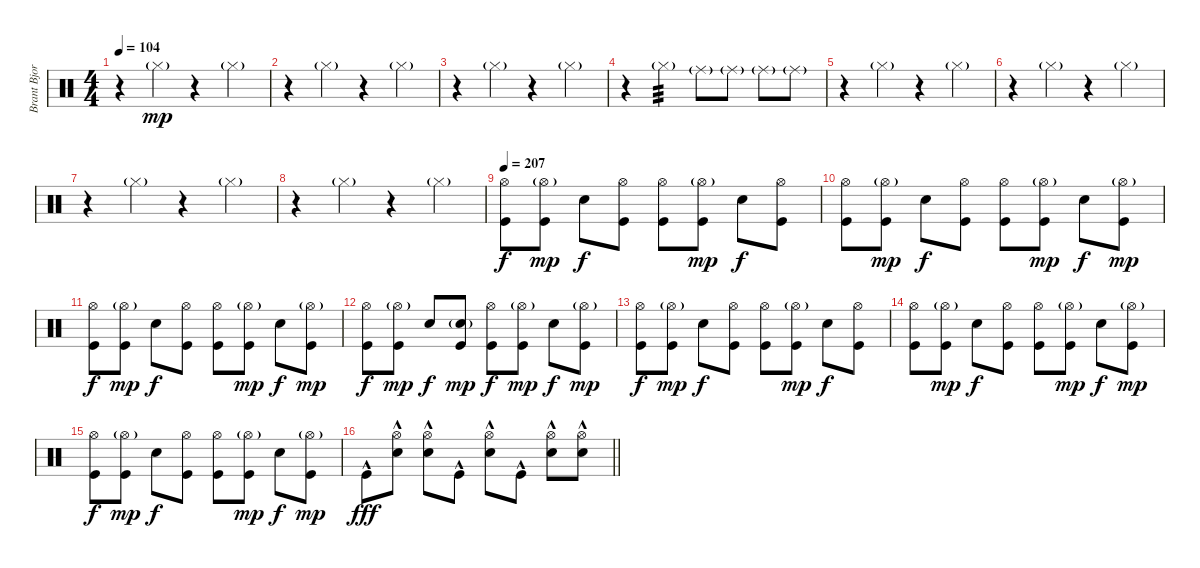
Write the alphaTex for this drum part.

\track ("Brant Bjork - Drums" "Brant Bjor") {instrument percussion}
\staff {score}
\articulation defaults
\ts (4 4)
\tempo 104
\clef neutral
\ks c
r.4{dy mp} "Hi-Hat (closed)"{g}.4 r.4 "Hi-Hat (closed)"{g}.4 |
r.4 "Hi-Hat (closed)"{g}.4 r.4 "Hi-Hat (closed)"{g}.4 |
r.4 "Hi-Hat (closed)"{g}.4 r.4 "Hi-Hat (closed)"{g}.4 |
r.4 "Hi-Hat (closed)"{g}.4{tp 3} "Ride (middle)"{g}.8 "Ride (middle)"{g}.8 "Ride (middle)"{g}.8 "Ride (middle)"{g}.8 |
r.4 "Hi-Hat (closed)"{g}.4 r.4 "Hi-Hat (closed)"{g}.4 |
r.4 "Hi-Hat (closed)"{g}.4 r.4 "Hi-Hat (closed)"{g}.4 |
r.4 "Hi-Hat (closed)"{g}.4 r.4 "Hi-Hat (closed)"{g}.4 |
r.4 "Hi-Hat (closed)"{g}.4 r.4 "Hi-Hat (closed)"{g}.4 |
\tempo 207
("Hi-Hat (open)" "Kick (hit)").8{dy f} ("Hi-Hat (open)"{g} "Kick (hit)").8{dy mp} "Snare (hit) 2".8{dy f} ("Hi-Hat (open)" "Kick (hit)").8 ("Hi-Hat (open)" "Kick (hit)").8 ("Hi-Hat (open)"{g} "Kick (hit)").8{dy mp} "Snare (hit) 2".8{dy f} ("Hi-Hat (open)" "Kick (hit)").8 |
("Hi-Hat (open)" "Kick (hit)").8 ("Hi-Hat (open)"{g} "Kick (hit)").8{dy mp} "Snare (hit) 2".8{dy f} ("Hi-Hat (open)" "Kick (hit)").8 ("Hi-Hat (open)" "Kick (hit)").8 ("Hi-Hat (open)"{g} "Kick (hit)").8{dy mp} "Snare (hit) 2".8{dy f} ("Hi-Hat (open)"{g} "Kick (hit)").8{dy mp} |
("Hi-Hat (open)" "Kick (hit)").8{dy f} ("Hi-Hat (open)"{g} "Kick (hit)").8{dy mp} "Snare (hit) 2".8{dy f} ("Hi-Hat (open)" "Kick (hit)").8 ("Hi-Hat (open)" "Kick (hit)").8 ("Hi-Hat (open)"{g} "Kick (hit)").8{dy mp} "Snare (hit) 2".8{dy f} ("Hi-Hat (open)"{g} "Kick (hit)").8{dy mp} |
("Hi-Hat (open)" "Kick (hit)").8{dy f} ("Hi-Hat (open)"{g} "Kick (hit)").8{dy mp} "Snare (hit) 2".8{dy f} ("Snare (hit) 2"{g} "Kick (hit)").8{dy mp} ("Hi-Hat (open)" "Kick (hit)").8{dy f} ("Hi-Hat (open)"{g} "Kick (hit)").8{dy mp} "Snare (hit) 2".8{dy f} ("Hi-Hat (open)"{g} "Kick (hit)").8{dy mp} |
("Hi-Hat (open)" "Kick (hit)").8{dy f} ("Hi-Hat (open)"{g} "Kick (hit)").8{dy mp} "Snare (hit) 2".8{dy f} ("Hi-Hat (open)" "Kick (hit)").8 ("Hi-Hat (open)" "Kick (hit)").8 ("Hi-Hat (open)"{g} "Kick (hit)").8{dy mp} "Snare (hit) 2".8{dy f} ("Hi-Hat (open)" "Kick (hit)").8 |
("Hi-Hat (open)" "Kick (hit)").8 ("Hi-Hat (open)"{g} "Kick (hit)").8{dy mp} "Snare (hit) 2".8{dy f} ("Hi-Hat (open)" "Kick (hit)").8 ("Hi-Hat (open)" "Kick (hit)").8 ("Hi-Hat (open)"{g} "Kick (hit)").8{dy mp} "Snare (hit) 2".8{dy f} ("Hi-Hat (open)"{g} "Kick (hit)").8{dy mp} |
("Hi-Hat (open)" "Kick (hit)").8{dy f} ("Hi-Hat (open)"{g} "Kick (hit)").8{dy mp} "Snare (hit) 2".8{dy f} ("Hi-Hat (open)" "Kick (hit)").8 ("Hi-Hat (open)" "Kick (hit)").8 ("Hi-Hat (open)"{g} "Kick (hit)").8{dy mp} "Snare (hit) 2".8{dy f} ("Hi-Hat (open)"{g} "Kick (hit)").8{dy mp} |
\barLineRight lightlight "Kick (hit)"{hac}.8{dy fff}
("Hi-Hat (open)" "Snare (hit) 2"{hac}).8 ("Hi-Hat (open)" "Snare (hit) 2"{hac}).8 "Kick (hit)"{hac}.8 ("Hi-Hat (open)" "Snare (hit) 2"{hac}).8 "Kick (hit)"{hac}.8 ("Hi-Hat (open)" "Snare (hit) 2"{hac}).8 ("Hi-Hat (open)" "Snare (hit) 2"{hac}).8
